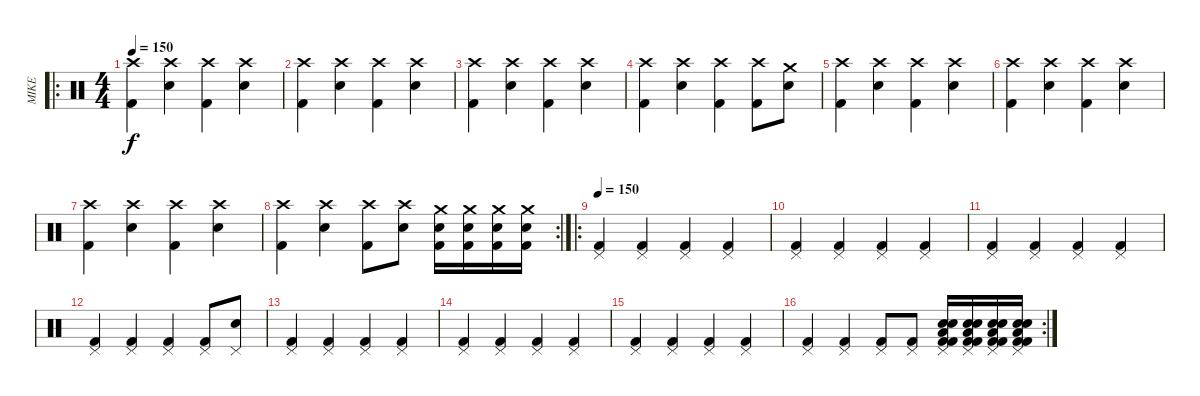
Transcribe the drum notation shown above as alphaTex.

\track ("MIKE" "MIKE") {instrument percussion}
\staff {score}
\articulation defaults
\ro
\ts (4 4)
\tempo 150
\clef neutral
\ks c
("Crash high (hit)" "Kick (hit) 2").4{dy f} ("Crash high (hit)" "Electric Snare (hit)").4 ("Crash high (hit)" "Kick (hit) 2").4 ("Crash high (hit)" "Electric Snare (hit)").4 |
("Crash high (hit)" "Kick (hit) 2").4 ("Crash high (hit)" "Electric Snare (hit)").4 ("Crash high (hit)" "Kick (hit) 2").4 ("Crash high (hit)" "Electric Snare (hit)").4 |
("Crash high (hit)" "Kick (hit) 2").4 ("Crash high (hit)" "Electric Snare (hit)").4 ("Crash high (hit)" "Kick (hit) 2").4 ("Crash high (hit)" "Electric Snare (hit)").4 |
("Crash high (hit)" "Kick (hit) 2").4 ("Crash high (hit)" "Electric Snare (hit)").4 ("Crash high (hit)" "Kick (hit) 2").4 ("Crash high (hit)" "Kick (hit) 2").8 ("Crash medium (hit)" "Electric Snare (hit)").8 |
("Crash high (hit)" "Kick (hit) 2").4 ("Crash high (hit)" "Electric Snare (hit)").4 ("Crash high (hit)" "Kick (hit) 2").4 ("Crash high (hit)" "Electric Snare (hit)").4 |
("Crash high (hit)" "Kick (hit) 2").4 ("Crash high (hit)" "Electric Snare (hit)").4 ("Crash high (hit)" "Kick (hit) 2").4 ("Crash high (hit)" "Electric Snare (hit)").4 |
("Crash high (hit)" "Kick (hit) 2").4 ("Crash high (hit)" "Electric Snare (hit)").4 ("Crash high (hit)" "Kick (hit) 2").4 ("Crash high (hit)" "Electric Snare (hit)").4 |
\rc 2
("Crash high (hit)" "Kick (hit) 2").4 ("Crash high (hit)" "Electric Snare (hit)").4 ("Crash high (hit)" "Kick (hit) 2").8 ("Crash high (hit)" "Electric Snare (hit)").8 ("Kick (hit) 2" "Crash medium (hit)" "Electric Snare (hit)").16 ("Kick (hit) 2" "Crash medium (hit)" "Electric Snare (hit)").16 ("Kick (hit) 2" "Crash medium (hit)" "Electric Snare (hit)").16 ("Kick (hit) 2" "Crash medium (hit)" "Electric Snare (hit)").16 |
\ro
\tempo 150
("Pedal Hi-Hat (hit)" "Kick (hit) 2").4 ("Pedal Hi-Hat (hit)" "Kick (hit) 2").4 ("Pedal Hi-Hat (hit)" "Kick (hit) 2").4 ("Pedal Hi-Hat (hit)" "Kick (hit) 2").4 |
("Pedal Hi-Hat (hit)" "Kick (hit) 2").4 ("Pedal Hi-Hat (hit)" "Kick (hit) 2").4 ("Pedal Hi-Hat (hit)" "Kick (hit) 2").4 ("Pedal Hi-Hat (hit)" "Kick (hit) 2").4 |
("Pedal Hi-Hat (hit)" "Kick (hit) 2").4 ("Pedal Hi-Hat (hit)" "Kick (hit) 2").4 ("Pedal Hi-Hat (hit)" "Kick (hit) 2").4 ("Pedal Hi-Hat (hit)" "Kick (hit) 2").4 |
("Pedal Hi-Hat (hit)" "Kick (hit) 2").4 ("Pedal Hi-Hat (hit)" "Kick (hit) 2").4 ("Pedal Hi-Hat (hit)" "Kick (hit) 2").4 ("Pedal Hi-Hat (hit)" "Kick (hit) 2").8 ("Pedal Hi-Hat (hit)" "Electric Snare (hit)").8 |
("Pedal Hi-Hat (hit)" "Kick (hit) 2").4 ("Pedal Hi-Hat (hit)" "Kick (hit) 2").4 ("Pedal Hi-Hat (hit)" "Kick (hit) 2").4 ("Pedal Hi-Hat (hit)" "Kick (hit) 2").4 |
("Pedal Hi-Hat (hit)" "Kick (hit) 2").4 ("Pedal Hi-Hat (hit)" "Kick (hit) 2").4 ("Pedal Hi-Hat (hit)" "Kick (hit) 2").4 ("Pedal Hi-Hat (hit)" "Kick (hit) 2").4 |
("Pedal Hi-Hat (hit)" "Kick (hit) 2").4 ("Pedal Hi-Hat (hit)" "Kick (hit) 2").4 ("Pedal Hi-Hat (hit)" "Kick (hit) 2").4 ("Pedal Hi-Hat (hit)" "Kick (hit) 2").4 |
\rc 2
("Pedal Hi-Hat (hit)" "Kick (hit) 2").4 ("Pedal Hi-Hat (hit)" "Kick (hit) 2").4 ("Pedal Hi-Hat (hit)" "Kick (hit) 2").8 ("Pedal Hi-Hat (hit)" "Kick (hit) 2").8 ("Low Floor Tom (hit)" "Electric Snare (hit)" "Kick (hit) 2" "Snare (hit) 2" "Pedal Hi-Hat (hit)" "Kick (hit) 2").16 ("Low Floor Tom (hit)" "Electric Snare (hit)" "Kick (hit) 2" "Snare (hit) 2" "Pedal Hi-Hat (hit)" "Kick (hit) 2").16 ("Low Floor Tom (hit)" "Electric Snare (hit)" "Kick (hit) 2" "Snare (hit) 2" "Pedal Hi-Hat (hit)" "Kick (hit) 2").16 ("Low Floor Tom (hit)" "Electric Snare (hit)" "Kick (hit) 2" "Snare (hit) 2" "Pedal Hi-Hat (hit)" "Kick (hit) 2").16
